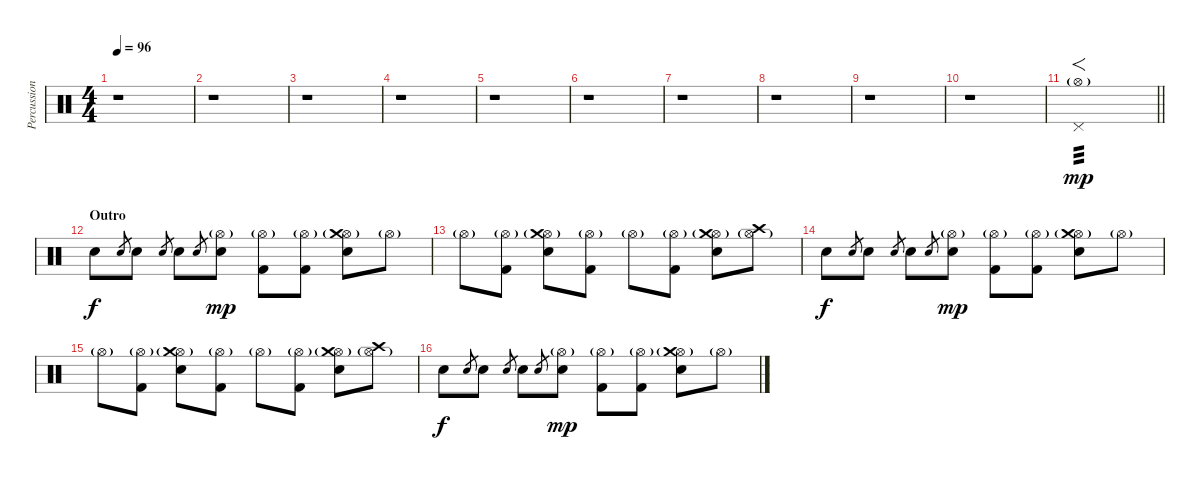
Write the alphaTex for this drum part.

\track ("Percussion" "Percussion") {instrument percussion}
\staff {score}
\articulation defaults
\ts (4 4)
\tempo 96
\clef neutral
\ks c
r.1{dy f} |
r.1 |
r.1 |
r.1 |
r.1 |
r.1 |
r.1 |
r.1 |
r.1 |
r.1 |
\barLineRight lightlight
("Pedal Hi-Hat (hit)" "Hi-Hat (open)"{g}).1{f tp 3 dy mp} |
\section ("" "Outro")
"Electric Snare (hit)".8{dy f} "Electric Snare (hit)".8{gr} "Electric Snare (hit)".8 "Electric Snare (hit)".8{gr} "Electric Snare (hit)".8 "Electric Snare (hit)".8{gr} ("Hi-Hat (open)"{g} "Electric Snare (hit)").8{dy mp} ("Hi-Hat (open)"{g} "Kick (hit) 2").8 ("Hi-Hat (open)"{g} "Kick (hit) 2").8 ("Hi-Hat (open)"{g} "Crash medium (hit)" "Electric Snare (hit)").8 "Hi-Hat (open)"{g}.8 |
"Hi-Hat (open)"{g}.8 ("Hi-Hat (open)"{g} "Kick (hit) 2").8 ("Hi-Hat (open)"{g} "Crash medium (hit)" "Electric Snare (hit)").8 ("Hi-Hat (open)"{g} "Kick (hit) 2").8 "Hi-Hat (open)"{g}.8 ("Hi-Hat (open)"{g} "Kick (hit) 2").8 ("Hi-Hat (open)"{g} "Crash medium (hit)" "Electric Snare (hit)").8 ("Hi-Hat (open)"{g} "Crash high (hit)").8 |
"Electric Snare (hit)".8{dy f} "Electric Snare (hit)".8{gr} "Electric Snare (hit)".8 "Electric Snare (hit)".8{gr} "Electric Snare (hit)".8 "Electric Snare (hit)".8{gr} ("Hi-Hat (open)"{g} "Electric Snare (hit)").8{dy mp} ("Hi-Hat (open)"{g} "Kick (hit) 2").8 ("Hi-Hat (open)"{g} "Kick (hit) 2").8 ("Hi-Hat (open)"{g} "Crash medium (hit)" "Electric Snare (hit)").8 "Hi-Hat (open)"{g}.8 |
"Hi-Hat (open)"{g}.8 ("Hi-Hat (open)"{g} "Kick (hit) 2").8 ("Hi-Hat (open)"{g} "Crash medium (hit)" "Electric Snare (hit)").8 ("Hi-Hat (open)"{g} "Kick (hit) 2").8 "Hi-Hat (open)"{g}.8 ("Hi-Hat (open)"{g} "Kick (hit) 2").8 ("Hi-Hat (open)"{g} "Crash medium (hit)" "Electric Snare (hit)").8 ("Hi-Hat (open)"{g} "Crash high (hit)").8 |
"Electric Snare (hit)".8{dy f} "Electric Snare (hit)".8{gr} "Electric Snare (hit)".8 "Electric Snare (hit)".8{gr} "Electric Snare (hit)".8 "Electric Snare (hit)".8{gr} ("Hi-Hat (open)"{g} "Electric Snare (hit)").8{dy mp} ("Hi-Hat (open)"{g} "Kick (hit) 2").8 ("Hi-Hat (open)"{g} "Kick (hit) 2").8 ("Hi-Hat (open)"{g} "Crash medium (hit)" "Electric Snare (hit)").8 "Hi-Hat (open)"{g}.8
